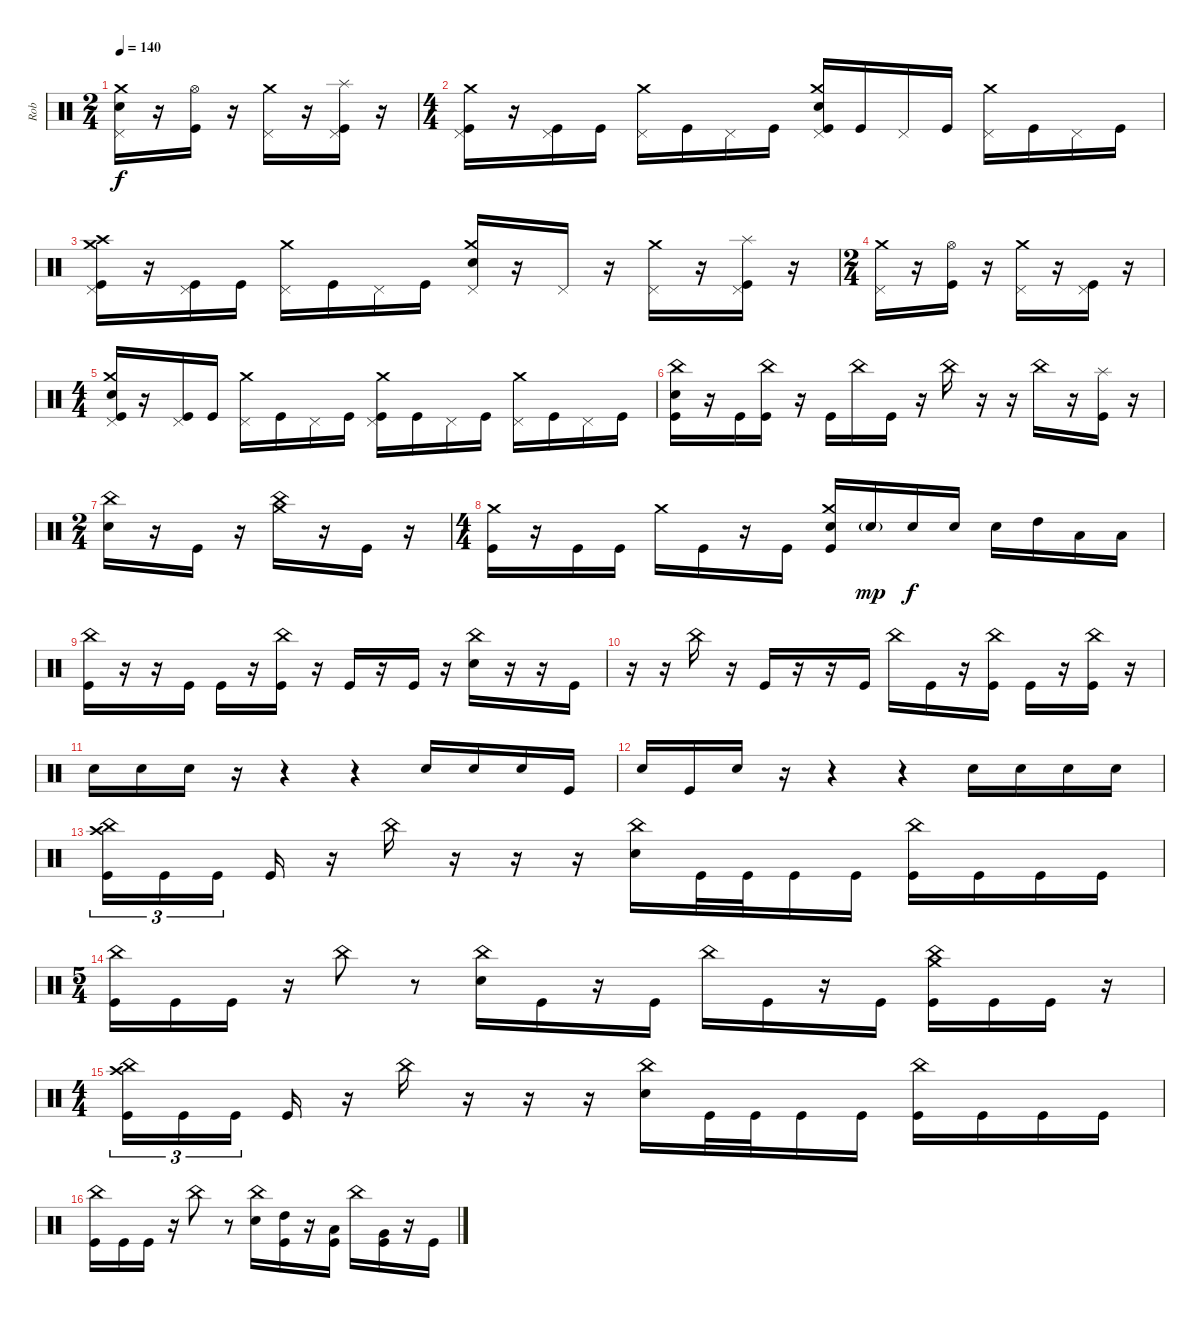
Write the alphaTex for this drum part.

\track ("Rob" "Rob") {instrument percussion}
\staff {score}
\articulation defaults
\ts (2 4)
\tempo 140
\clef neutral
\ks c
("Electric Snare (hit)" "Crash medium (hit)" "Pedal Hi-Hat (hit)").16{dy f} r.16 ("Hi-Hat (open)" "Kick (hit)").16 r.16 ("Crash medium (hit)" "Pedal Hi-Hat (hit)").16 r.16 ("Splash (hit)" "Pedal Hi-Hat (hit)" "Kick (hit)").16 r.16 |
\ts (4 4)
("Crash medium (hit)" "Pedal Hi-Hat (hit)" "Kick (hit)").16 r.16 ("Pedal Hi-Hat (hit)" "Kick (hit)").16 "Kick (hit)".16 ("Crash medium (hit)" "Pedal Hi-Hat (hit)").16 "Kick (hit)".16 "Pedal Hi-Hat (hit)".16 "Kick (hit)".16 ("Electric Snare (hit)" "Crash medium (hit)" "Pedal Hi-Hat (hit)" "Kick (hit)").16 "Kick (hit)".16 "Pedal Hi-Hat (hit)".16 "Kick (hit)".16 ("Crash medium (hit)" "Pedal Hi-Hat (hit)").16 "Kick (hit)".16 "Pedal Hi-Hat (hit)".16 "Kick (hit)".16 |
("Crash high (hit)" "Crash medium (hit)" "Pedal Hi-Hat (hit)" "Kick (hit)").16 r.16 ("Pedal Hi-Hat (hit)" "Kick (hit)").16 "Kick (hit)".16 ("Crash medium (hit)" "Pedal Hi-Hat (hit)").16 "Kick (hit)".16 "Pedal Hi-Hat (hit)".16 "Kick (hit)".16 ("Electric Snare (hit)" "Crash medium (hit)" "Pedal Hi-Hat (hit)").16 r.16 "Pedal Hi-Hat (hit)".16 r.16 ("Crash medium (hit)" "Pedal Hi-Hat (hit)").16 r.16 ("Splash (hit)" "Pedal Hi-Hat (hit)" "Kick (hit)").16 r.16 |
\ts (2 4)
("Crash medium (hit)" "Pedal Hi-Hat (hit)").16 r.16 ("Hi-Hat (open)" "Kick (hit)").16 r.16 ("Crash medium (hit)" "Pedal Hi-Hat (hit)").16 r.16 ("Pedal Hi-Hat (hit)" "Kick (hit)").16 r.16 |
\ts (4 4)
("Electric Snare (hit)" "Crash medium (hit)" "Pedal Hi-Hat (hit)" "Kick (hit)").16 r.16 ("Pedal Hi-Hat (hit)" "Kick (hit)").16 "Kick (hit)".16 ("Crash medium (hit)" "Pedal Hi-Hat (hit)").16 "Kick (hit)".16 "Pedal Hi-Hat (hit)".16 "Kick (hit)".16 ("Crash medium (hit)" "Pedal Hi-Hat (hit)" "Kick (hit)").16 "Kick (hit)".16 "Pedal Hi-Hat (hit)".16 "Kick (hit)".16 ("Crash medium (hit)" "Pedal Hi-Hat (hit)").16 "Kick (hit)".16 "Pedal Hi-Hat (hit)".16 "Kick (hit)".16 |
("Electric Snare (hit)" "China (hit)" "Kick (hit)").16 r.16 "Kick (hit)".16 ("China (hit)" "Kick (hit)").16 r.16 "Kick (hit)".16 "China (hit)".16 "Kick (hit)".16 r.16 "China (hit)".16 r.16 r.16 "China (hit)".16 r.16 ("Splash (hit)" "Kick (hit)").16 r.16 |
\ts (2 4)
("Electric Snare (hit)" "China (hit)").16 r.16 "Kick (hit)".16 r.16 ("Crash medium (hit)" "China (hit)").16 r.16 "Kick (hit)".16 r.16 |
\ts (4 4)
("Crash medium (hit)" "Kick (hit)").16 r.16 "Kick (hit)".16 "Kick (hit)".16 "Crash medium (hit)".16 "Kick (hit)".16 r.16 "Kick (hit)".16 ("Electric Snare (hit)" "Crash medium (hit)" "Kick (hit)").16 "Electric Snare (hit)"{g}.16{dy mp} "Electric Snare (hit)".16{dy f} "Electric Snare (hit)".16 "Electric Snare (hit)".16 "High Tom (hit)".16 "Low Tom (hit)".16 "Low Tom (hit)".16 |
("China (hit)" "Kick (hit)").16 r.16 r.16 "Kick (hit)".16 "Kick (hit)".16 r.16 ("China (hit)" "Kick (hit)").16 r.16 "Kick (hit)".16 r.16 "Kick (hit)".16 r.16 ("Electric Snare (hit)" "China (hit)").16 r.16 r.16 "Kick (hit)".16 |
r.16 r.16 "China (hit)".16 r.16 "Kick (hit)".16 r.16 r.16 "Kick (hit)".16 "China (hit)".16 "Kick (hit)".16 r.16 ("China (hit)" "Kick (hit)").16 "Kick (hit)".16 r.16 ("China (hit)" "Kick (hit)").16 r.16 |
"Electric Snare (hit)".16 "Electric Snare (hit)".16 "Electric Snare (hit)".16 r.16 r.4 r.4 "Electric Snare (hit)".16 "Electric Snare (hit)".16 "Electric Snare (hit)".16 "Kick (hit)".16 |
"Electric Snare (hit)".16 "Kick (hit)".16 "Electric Snare (hit)".16 r.16 r.4 r.4 "Electric Snare (hit)".16 "Electric Snare (hit)".16 "Electric Snare (hit)".16 "Electric Snare (hit)".16 |
("Crash high (hit)" "China (hit)" "Kick (hit)").16{tu (3 2)} "Kick (hit)".16{tu (3 2)} "Kick (hit)".16{tu (3 2) beam splitsecondary} "Kick (hit)".16 r.16 "China (hit)".16 r.16 r.16 r.16 ("Electric Snare (hit)" "China (hit)").16 "Kick (hit)".32 "Kick (hit)".32 "Kick (hit)".16 "Kick (hit)".16 ("China (hit)" "Kick (hit)").16 "Kick (hit)".16 "Kick (hit)".16 "Kick (hit)".16 |
\ts (5 4)
("China (hit)" "Kick (hit)").16 "Kick (hit)".16 "Kick (hit)".16 r.16 "China (hit)".8 r.8 ("Electric Snare (hit)" "China (hit)").16 "Kick (hit)".16 r.16 "Kick (hit)".16 "China (hit)".16 "Kick (hit)".16 r.16 "Kick (hit)".16 ("Crash medium (hit)" "China (hit)" "Kick (hit)").16 "Kick (hit)".16 "Kick (hit)".16 r.16 |
\ts (4 4)
("Crash high (hit)" "China (hit)" "Kick (hit)").16{tu (3 2)} "Kick (hit)".16{tu (3 2)} "Kick (hit)".16{tu (3 2) beam splitsecondary} "Kick (hit)".16 r.16 "China (hit)".16 r.16 r.16 r.16 ("Electric Snare (hit)" "China (hit)").16 "Kick (hit)".32 "Kick (hit)".32 "Kick (hit)".16 "Kick (hit)".16 ("China (hit)" "Kick (hit)").16 "Kick (hit)".16 "Kick (hit)".16 "Kick (hit)".16 |
("China (hit)" "Kick (hit)").16 "Kick (hit)".16 "Kick (hit)".16 r.16 "China (hit)".8 r.8 ("Electric Snare (hit)" "China (hit)").16 ("High Tom (hit)" "Kick (hit)").16 r.16 ("Low Tom (hit)" "Kick (hit)").16 "China (hit)".16 ("Very Low Tom (hit)" "Kick (hit)").16 r.16 "Kick (hit)".16
